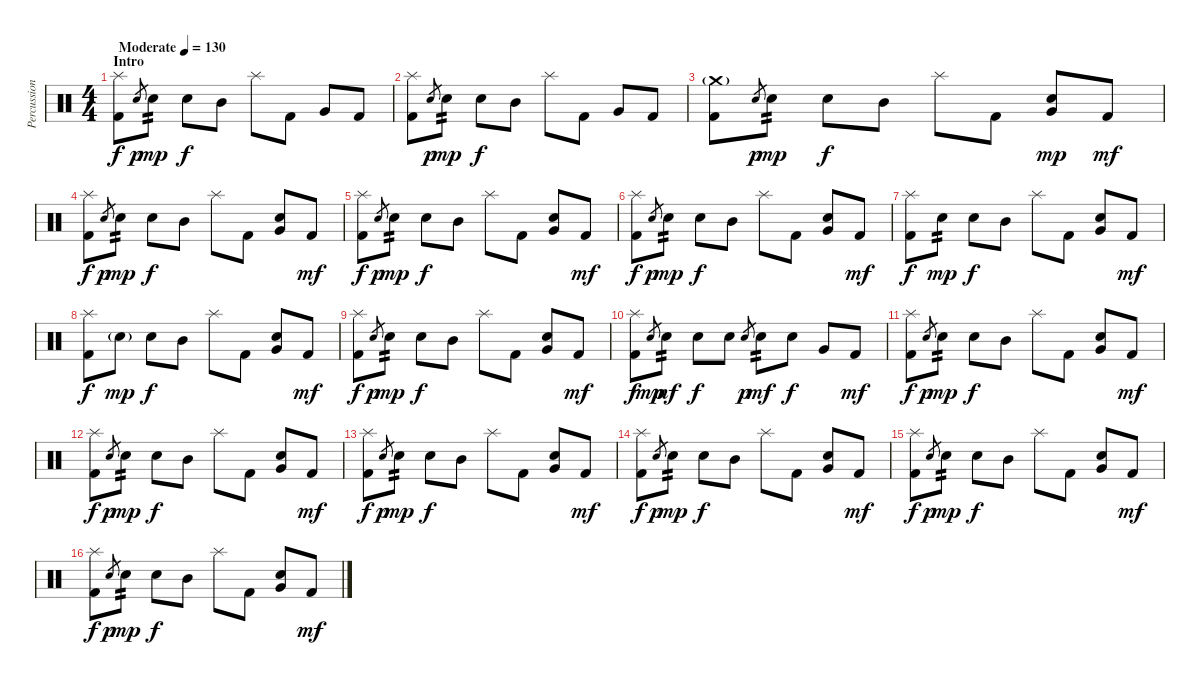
\track ("Percussion" "Percussion") {instrument percussion}
\staff {score}
\articulation defaults
\ts (4 4)
\section ("" "Intro")
\tempo (130 "Moderate")
\clef neutral
\ks c
("Splash (hit)" "Kick (hit) 2").8{dy f} "Electric Snare (hit)".8{gr dy p} "Electric Snare (hit)".8{tp 2 dy mp} "Electric Snare (hit)".8{dy f} "Mid Tom (hit)".8 "Splash (hit)".8 "Kick (hit) 2".8 "Very Low Tom (hit)".8 "Kick (hit) 2".8 |
("Splash (hit)" "Kick (hit) 2").8 "Electric Snare (hit)".8{gr dy p} "Electric Snare (hit)".8{tp 2 dy mp} "Electric Snare (hit)".8{dy f} "Mid Tom (hit)".8 "Splash (hit)".8 "Kick (hit) 2".8 "Very Low Tom (hit)".8 "Kick (hit) 2".8 |
("Crash medium (hit)"{g} "Kick (hit) 2").8 "Electric Snare (hit)".8{gr dy p} "Electric Snare (hit)".8{tp 2 dy mp} "Electric Snare (hit)".8{dy f} "Mid Tom (hit)".8 "Splash (hit)".8 "Kick (hit) 2".8 ("Electric Snare (hit)" "Very Low Tom (hit)").8{dy mp} "Kick (hit) 2".8{dy mf} |
("Splash (hit)" "Kick (hit) 2").8{dy f} "Electric Snare (hit)".8{gr dy p} "Electric Snare (hit)".8{tp 2 dy mp} "Electric Snare (hit)".8{dy f} "Mid Tom (hit)".8 "Splash (hit)".8 "Kick (hit) 2".8 ("Electric Snare (hit)" "Very Low Tom (hit)").8 "Kick (hit) 2".8{dy mf} |
("Splash (hit)" "Kick (hit) 2").8{dy f} "Electric Snare (hit)".8{gr dy p} "Electric Snare (hit)".8{tp 2 dy mp} "Electric Snare (hit)".8{dy f} "Mid Tom (hit)".8 "Splash (hit)".8 "Kick (hit) 2".8 ("Electric Snare (hit)" "Very Low Tom (hit)").8 "Kick (hit) 2".8{dy mf} |
("Splash (hit)" "Kick (hit) 2").8{dy f} "Electric Snare (hit)".8{gr dy p} "Electric Snare (hit)".8{tp 2 dy mp} "Electric Snare (hit)".8{dy f} "Mid Tom (hit)".8 "Splash (hit)".8 "Kick (hit) 2".8 ("Electric Snare (hit)" "Very Low Tom (hit)").8 "Kick (hit) 2".8{dy mf} |
("Splash (hit)" "Kick (hit) 2").8{dy f} "Electric Snare (hit)".8{tp 2 dy mp} "Electric Snare (hit)".8{dy f} "Mid Tom (hit)".8 "Splash (hit)".8 "Kick (hit) 2".8 ("Electric Snare (hit)" "Very Low Tom (hit)").8 "Kick (hit) 2".8{dy mf} |
("Splash (hit)" "Kick (hit) 2").8{dy f} "Electric Snare (hit)"{g}.8{dy mp} "Electric Snare (hit)".8{dy f} "Mid Tom (hit)".8 "Splash (hit)".8 "Kick (hit) 2".8 ("Electric Snare (hit)" "Very Low Tom (hit)").8 "Kick (hit) 2".8{dy mf} |
("Splash (hit)" "Kick (hit) 2").8{dy f} "Electric Snare (hit)".8{gr dy p} "Electric Snare (hit)".8{tp 2 dy mp} "Electric Snare (hit)".8{dy f} "Mid Tom (hit)".8 "Splash (hit)".8 "Kick (hit) 2".8 ("Electric Snare (hit)" "Very Low Tom (hit)").8 "Kick (hit) 2".8{dy mf} |
("Splash (hit)" "Kick (hit) 2").8{dy f} "Electric Snare (hit)".8{gr dy mp} "Electric Snare (hit)".8{tp 2 dy mf} "Electric Snare (hit)".8{dy f} "Electric Snare (hit)".8 "Electric Snare (hit)".8{gr dy p} "Electric Snare (hit)".8{tp 2 dy mf} "Electric Snare (hit)".8{dy f} "Very Low Tom (hit)".8 "Kick (hit) 2".8{dy mf} |
("Splash (hit)" "Kick (hit) 2").8{dy f} "Electric Snare (hit)".8{gr dy p} "Electric Snare (hit)".8{tp 2 dy mp} "Electric Snare (hit)".8{dy f} "Mid Tom (hit)".8 "Splash (hit)".8 "Kick (hit) 2".8 ("Electric Snare (hit)" "Very Low Tom (hit)").8 "Kick (hit) 2".8{dy mf} |
("Splash (hit)" "Kick (hit) 2").8{dy f} "Electric Snare (hit)".8{gr dy p} "Electric Snare (hit)".8{tp 2 dy mp} "Electric Snare (hit)".8{dy f} "Mid Tom (hit)".8 "Splash (hit)".8 "Kick (hit) 2".8 ("Electric Snare (hit)" "Very Low Tom (hit)").8 "Kick (hit) 2".8{dy mf} |
("Splash (hit)" "Kick (hit) 2").8{dy f} "Electric Snare (hit)".8{gr dy p} "Electric Snare (hit)".8{tp 2 dy mp} "Electric Snare (hit)".8{dy f} "Mid Tom (hit)".8 "Splash (hit)".8 "Kick (hit) 2".8 ("Electric Snare (hit)" "Very Low Tom (hit)").8 "Kick (hit) 2".8{dy mf} |
("Splash (hit)" "Kick (hit) 2").8{dy f} "Electric Snare (hit)".8{gr dy p} "Electric Snare (hit)".8{tp 2 dy mp} "Electric Snare (hit)".8{dy f} "Mid Tom (hit)".8 "Splash (hit)".8 "Kick (hit) 2".8 ("Electric Snare (hit)" "Very Low Tom (hit)").8 "Kick (hit) 2".8{dy mf} |
("Splash (hit)" "Kick (hit) 2").8{dy f} "Electric Snare (hit)".8{gr dy p} "Electric Snare (hit)".8{tp 2 dy mp} "Electric Snare (hit)".8{dy f} "Mid Tom (hit)".8 "Splash (hit)".8 "Kick (hit) 2".8 ("Electric Snare (hit)" "Very Low Tom (hit)").8 "Kick (hit) 2".8{dy mf} |
("Splash (hit)" "Kick (hit) 2").8{dy f} "Electric Snare (hit)".8{gr dy p} "Electric Snare (hit)".8{tp 2 dy mp} "Electric Snare (hit)".8{dy f} "Mid Tom (hit)".8 "Splash (hit)".8 "Kick (hit) 2".8 ("Electric Snare (hit)" "Very Low Tom (hit)").8 "Kick (hit) 2".8{dy mf}
